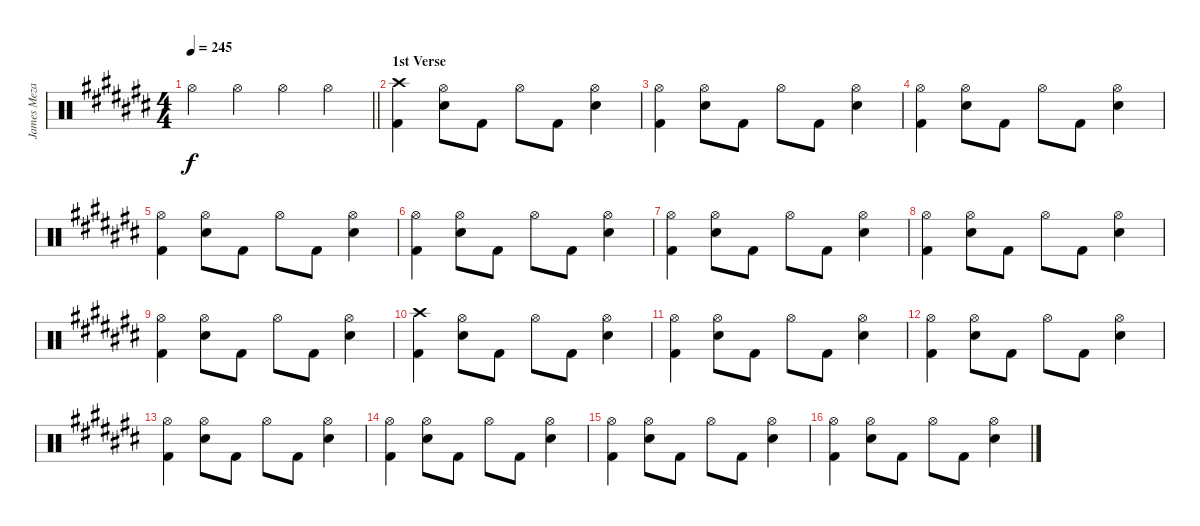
\track ("James Meza" "James Meza") {instrument percussion}
\staff {score}
\articulation defaults
\ts (4 4)
\tempo 245
\clef neutral
\barLineRight lightlight
\ks c# "Hi-Hat (open)".4{dy f} "Hi-Hat (open)".4 "Hi-Hat (open)".4 "Hi-Hat (open)".4
|
\section ("" "1st Verse")
("Crash high (hit)" "Kick (hit) 2").4 ("Hi-Hat (open)" "Snare (hit) 2").8 "Kick (hit) 2".8 "Hi-Hat (open)".8 "Kick (hit) 2".8 ("Hi-Hat (open)" "Snare (hit) 2").4 |
("Hi-Hat (open)" "Kick (hit) 2").4 ("Hi-Hat (open)" "Snare (hit) 2").8 "Kick (hit) 2".8 "Hi-Hat (open)".8 "Kick (hit) 2".8 ("Hi-Hat (open)" "Snare (hit) 2").4 |
("Hi-Hat (open)" "Kick (hit) 2").4 ("Hi-Hat (open)" "Snare (hit) 2").8 "Kick (hit) 2".8 "Hi-Hat (open)".8 "Kick (hit) 2".8 ("Hi-Hat (open)" "Snare (hit) 2").4 |
("Hi-Hat (open)" "Kick (hit) 2").4 ("Hi-Hat (open)" "Snare (hit) 2").8 "Kick (hit) 2".8 "Hi-Hat (open)".8 "Kick (hit) 2".8 ("Hi-Hat (open)" "Snare (hit) 2").4 |
("Hi-Hat (open)" "Kick (hit) 2").4 ("Hi-Hat (open)" "Snare (hit) 2").8 "Kick (hit) 2".8 "Hi-Hat (open)".8 "Kick (hit) 2".8 ("Hi-Hat (open)" "Snare (hit) 2").4 |
("Hi-Hat (open)" "Kick (hit) 2").4 ("Hi-Hat (open)" "Snare (hit) 2").8 "Kick (hit) 2".8 "Hi-Hat (open)".8 "Kick (hit) 2".8 ("Hi-Hat (open)" "Snare (hit) 2").4 |
("Hi-Hat (open)" "Kick (hit) 2").4 ("Hi-Hat (open)" "Snare (hit) 2").8 "Kick (hit) 2".8 "Hi-Hat (open)".8 "Kick (hit) 2".8 ("Hi-Hat (open)" "Snare (hit) 2").4 |
("Hi-Hat (open)" "Kick (hit) 2").4 ("Hi-Hat (open)" "Snare (hit) 2").8 "Kick (hit) 2".8 "Hi-Hat (open)".8 "Kick (hit) 2".8 ("Hi-Hat (open)" "Snare (hit) 2").4 |
("Crash high (hit)" "Kick (hit) 2").4 ("Hi-Hat (open)" "Snare (hit) 2").8 "Kick (hit) 2".8 "Hi-Hat (open)".8 "Kick (hit) 2".8 ("Hi-Hat (open)" "Snare (hit) 2").4 |
("Hi-Hat (open)" "Kick (hit) 2").4 ("Hi-Hat (open)" "Snare (hit) 2").8 "Kick (hit) 2".8 "Hi-Hat (open)".8 "Kick (hit) 2".8 ("Hi-Hat (open)" "Snare (hit) 2").4 |
("Hi-Hat (open)" "Kick (hit) 2").4 ("Hi-Hat (open)" "Snare (hit) 2").8 "Kick (hit) 2".8 "Hi-Hat (open)".8 "Kick (hit) 2".8 ("Hi-Hat (open)" "Snare (hit) 2").4 |
("Hi-Hat (open)" "Kick (hit) 2").4 ("Hi-Hat (open)" "Snare (hit) 2").8 "Kick (hit) 2".8 "Hi-Hat (open)".8 "Kick (hit) 2".8 ("Hi-Hat (open)" "Snare (hit) 2").4 |
("Hi-Hat (open)" "Kick (hit) 2").4 ("Hi-Hat (open)" "Snare (hit) 2").8 "Kick (hit) 2".8 "Hi-Hat (open)".8 "Kick (hit) 2".8 ("Hi-Hat (open)" "Snare (hit) 2").4 |
("Hi-Hat (open)" "Kick (hit) 2").4 ("Hi-Hat (open)" "Snare (hit) 2").8 "Kick (hit) 2".8 "Hi-Hat (open)".8 "Kick (hit) 2".8 ("Hi-Hat (open)" "Snare (hit) 2").4 |
("Hi-Hat (open)" "Kick (hit) 2").4 ("Hi-Hat (open)" "Snare (hit) 2").8 "Kick (hit) 2".8 "Hi-Hat (open)".8 "Kick (hit) 2".8 ("Hi-Hat (open)" "Snare (hit) 2").4
